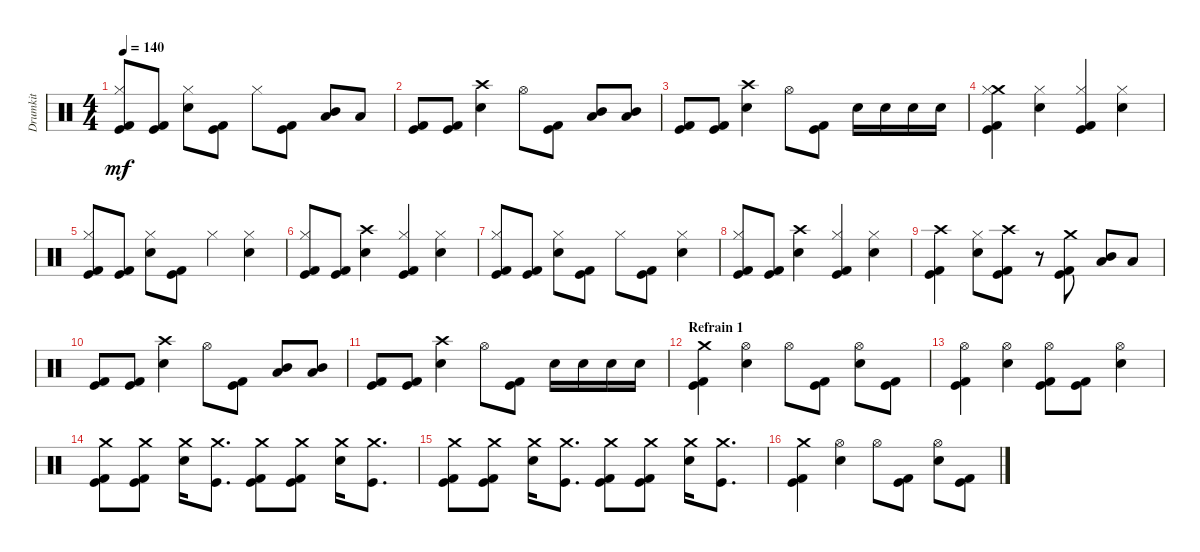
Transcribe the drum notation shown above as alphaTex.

\track ("Drumkit" "Drumkit") {instrument percussion}
\staff {score}
\articulation defaults
\ts (4 4)
\tempo 140
\clef neutral
\ks c
("Kick (hit) 2" "Hi-Hat (closed)" "Kick (hit)").8{dy mf} ("Kick (hit) 2" "Kick (hit)").8 ("Hi-Hat (closed)" "Snare (hit) 2").8 ("Kick (hit) 2" "Kick (hit)").8 "Hi-Hat (closed)".8 ("Kick (hit) 2" "Kick (hit)").8 ("Mid Tom (hit)" "Low Tom (hit)").8 "Low Tom (hit)".8 |
("Kick (hit) 2" "Kick (hit)").8 ("Kick (hit) 2" "Kick (hit)").8 ("Crash high (hit)" "Snare (hit) 2").4 "Hi-Hat (open)".8 ("Kick (hit) 2" "Kick (hit)").8 ("Mid Tom (hit)" "Low Tom (hit)").8 ("Mid Tom (hit)" "Low Tom (hit)").8 |
("Kick (hit) 2" "Kick (hit)").8 ("Kick (hit) 2" "Kick (hit)").8 ("Crash high (hit)" "Snare (hit) 2").4 "Hi-Hat (open)".8 ("Kick (hit) 2" "Kick (hit)").8 "Snare (hit) 2".16 "Snare (hit) 2".16 "Snare (hit) 2".16 "Snare (hit) 2".16 |
("Crash medium (hit)" "Hi-Hat (closed)" "Kick (hit) 2" "Kick (hit)").4 ("Hi-Hat (closed)" "Snare (hit) 2").4 ("Kick (hit) 2" "Hi-Hat (closed)" "Kick (hit)").4 ("Hi-Hat (closed)" "Snare (hit) 2").4 |
("Kick (hit) 2" "Hi-Hat (closed)" "Kick (hit)").8 ("Kick (hit) 2" "Kick (hit)").8 ("Hi-Hat (closed)" "Snare (hit) 2").8 ("Kick (hit) 2" "Kick (hit)").8 "Hi-Hat (closed)".4 ("Hi-Hat (closed)" "Snare (hit) 2").4 |
("Kick (hit) 2" "Hi-Hat (closed)" "Kick (hit)").8 ("Kick (hit) 2" "Kick (hit)").8 ("Crash high (hit)" "Snare (hit) 2").4 ("Kick (hit) 2" "Hi-Hat (closed)" "Kick (hit)").4 ("Hi-Hat (closed)" "Snare (hit) 2").4 |
("Kick (hit) 2" "Hi-Hat (closed)" "Kick (hit)").8 ("Kick (hit) 2" "Kick (hit)").8 ("Hi-Hat (closed)" "Snare (hit) 2").8 ("Kick (hit) 2" "Kick (hit)").8 "Hi-Hat (closed)".8 ("Kick (hit) 2" "Kick (hit)").8 ("Hi-Hat (closed)" "Snare (hit) 2").4 |
("Kick (hit) 2" "Hi-Hat (closed)" "Kick (hit)").8 ("Kick (hit) 2" "Kick (hit)").8 ("Crash high (hit)" "Snare (hit) 2").4 ("Kick (hit) 2" "Hi-Hat (closed)" "Kick (hit)").4 ("Hi-Hat (closed)" "Snare (hit) 2").4 |
("Crash high (hit)" "Kick (hit) 2" "Kick (hit)").4 ("Hi-Hat (closed)" "Snare (hit) 2").8 ("Crash high (hit)" "Kick (hit) 2" "Kick (hit)").8 r.8 ("Crash medium (hit)" "Kick (hit) 2" "Kick (hit)").8 ("Mid Tom (hit)" "Low Tom (hit)").8 "Low Tom (hit)".8 |
("Kick (hit) 2" "Kick (hit)").8 ("Kick (hit) 2" "Kick (hit)").8 ("Crash high (hit)" "Snare (hit) 2").4 "Hi-Hat (open)".8 ("Kick (hit) 2" "Kick (hit)").8 ("Mid Tom (hit)" "Low Tom (hit)").8 ("Mid Tom (hit)" "Low Tom (hit)").8 |
("Kick (hit) 2" "Kick (hit)").8 ("Kick (hit) 2" "Kick (hit)").8 ("Crash high (hit)" "Snare (hit) 2").4 "Hi-Hat (open)".8 ("Kick (hit) 2" "Kick (hit)").8 "Snare (hit) 2".16 "Snare (hit) 2".16 "Snare (hit) 2".16 "Snare (hit) 2".16 |
\section ("" "Refrain 1")
("Crash medium (hit)" "Kick (hit) 2" "Kick (hit)").4 ("Hi-Hat (open)" "Snare (hit) 2").4 "Hi-Hat (open)".8 ("Kick (hit) 2" "Kick (hit)").8 ("Hi-Hat (open)" "Snare (hit) 2").8 ("Kick (hit) 2" "Kick (hit)").8 |
("Kick (hit) 2" "Hi-Hat (open)" "Kick (hit)").4 ("Hi-Hat (open)" "Snare (hit) 2").4 ("Kick (hit) 2" "Hi-Hat (open)" "Kick (hit)").8 ("Kick (hit) 2" "Kick (hit)").8 ("Hi-Hat (open)" "Snare (hit) 2").4 |
("Crash medium (hit)" "Kick (hit) 2" "Kick (hit)").8 ("Crash medium (hit)" "Kick (hit) 2" "Kick (hit)").8 ("Crash medium (hit)" "Snare (hit) 2").16 ("Crash medium (hit)" "Kick (hit)").8{d} ("Crash medium (hit)" "Kick (hit) 2" "Kick (hit)").8 ("Crash medium (hit)" "Kick (hit) 2" "Kick (hit)").8 ("Crash medium (hit)" "Snare (hit) 2").16 ("Crash medium (hit)" "Kick (hit)").8{d} |
("Crash medium (hit)" "Kick (hit) 2" "Kick (hit)").8 ("Crash medium (hit)" "Kick (hit) 2" "Kick (hit)").8 ("Crash medium (hit)" "Snare (hit) 2").16 ("Crash medium (hit)" "Kick (hit)").8{d} ("Crash medium (hit)" "Kick (hit) 2" "Kick (hit)").8 ("Crash medium (hit)" "Kick (hit) 2" "Kick (hit)").8 ("Crash medium (hit)" "Snare (hit) 2").16 ("Crash medium (hit)" "Kick (hit)").8{d} |
("Crash medium (hit)" "Kick (hit) 2" "Kick (hit)").4 ("Hi-Hat (open)" "Snare (hit) 2").4 "Hi-Hat (open)".8 ("Kick (hit) 2" "Kick (hit)").8 ("Hi-Hat (open)" "Snare (hit) 2").8 ("Kick (hit) 2" "Kick (hit)").8
